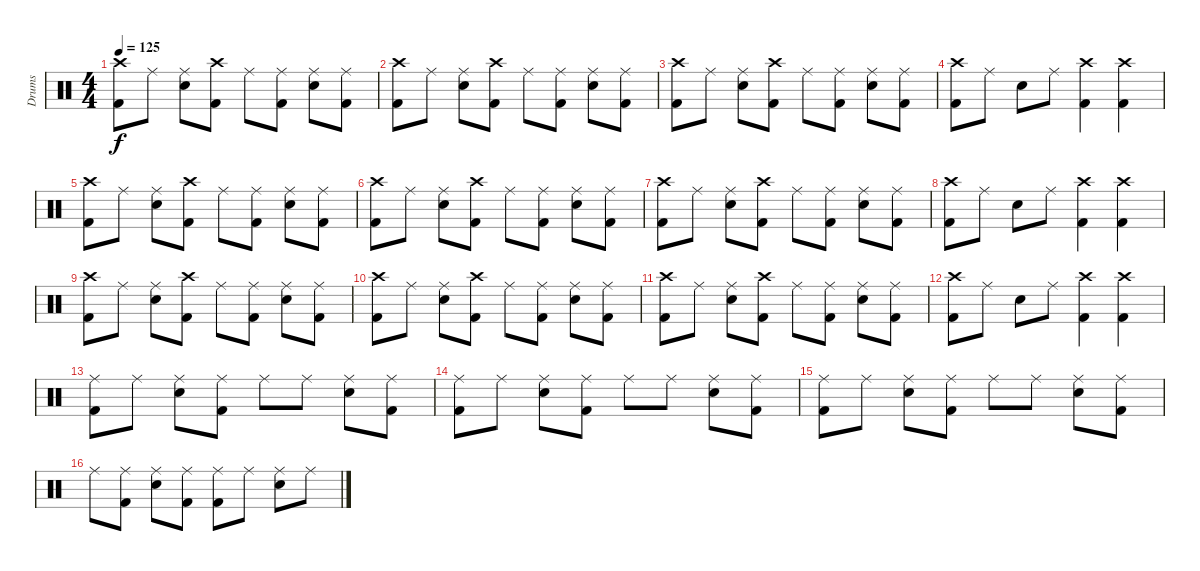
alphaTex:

\track ("Drums" "Drums") {instrument percussion}
\staff {score}
\articulation defaults
\ts (4 4)
\tempo 125
\clef neutral
\ks c
("Crash high (hit)" "Kick (hit) 2").8{dy f} "Ride (middle)".8 ("Ride (middle)" "Snare (hit) 2").8 ("Crash high (hit)" "Kick (hit) 2").8 "Ride (middle)".8 ("Ride (middle)" "Kick (hit) 2").8 ("Ride (middle)" "Snare (hit) 2").8 ("Ride (middle)" "Kick (hit) 2").8 |
("Crash high (hit)" "Kick (hit) 2").8 "Ride (middle)".8 ("Ride (middle)" "Snare (hit) 2").8 ("Crash high (hit)" "Kick (hit) 2").8 "Ride (middle)".8 ("Ride (middle)" "Kick (hit) 2").8 ("Ride (middle)" "Snare (hit) 2").8 ("Ride (middle)" "Kick (hit) 2").8 |
("Crash high (hit)" "Kick (hit) 2").8 "Ride (middle)".8 ("Ride (middle)" "Snare (hit) 2").8 ("Crash high (hit)" "Kick (hit) 2").8 "Ride (middle)".8 ("Ride (middle)" "Kick (hit) 2").8 ("Ride (middle)" "Snare (hit) 2").8 ("Ride (middle)" "Kick (hit) 2").8 |
("Crash high (hit)" "Kick (hit) 2").8 "Ride (middle)".8 "Snare (hit) 2".8 "Ride (middle)".8 ("Crash high (hit)" "Kick (hit) 2").4 ("Crash high (hit)" "Kick (hit) 2").4 |
("Crash high (hit)" "Kick (hit) 2").8 "Ride (middle)".8 ("Ride (middle)" "Snare (hit) 2").8 ("Crash high (hit)" "Kick (hit) 2").8 "Ride (middle)".8 ("Ride (middle)" "Kick (hit) 2").8 ("Ride (middle)" "Snare (hit) 2").8 ("Ride (middle)" "Kick (hit) 2").8 |
("Crash high (hit)" "Kick (hit) 2").8 "Ride (middle)".8 ("Ride (middle)" "Snare (hit) 2").8 ("Crash high (hit)" "Kick (hit) 2").8 "Ride (middle)".8 ("Ride (middle)" "Kick (hit) 2").8 ("Ride (middle)" "Snare (hit) 2").8 ("Ride (middle)" "Kick (hit) 2").8 |
("Crash high (hit)" "Kick (hit) 2").8 "Ride (middle)".8 ("Ride (middle)" "Snare (hit) 2").8 ("Crash high (hit)" "Kick (hit) 2").8 "Ride (middle)".8 ("Ride (middle)" "Kick (hit) 2").8 ("Ride (middle)" "Snare (hit) 2").8 ("Ride (middle)" "Kick (hit) 2").8 |
("Kick (hit) 2" "Crash high (hit)").8 "Ride (middle)".8 "Snare (hit) 2".8 "Ride (middle)".8 ("Kick (hit) 2" "Crash high (hit)").4 ("Kick (hit) 2" "Crash high (hit)").4 |
("Crash high (hit)" "Kick (hit) 2").8 "Ride (middle)".8 ("Ride (middle)" "Snare (hit) 2").8 ("Crash high (hit)" "Kick (hit) 2").8 "Ride (middle)".8 ("Ride (middle)" "Kick (hit) 2").8 ("Ride (middle)" "Snare (hit) 2").8 ("Ride (middle)" "Kick (hit) 2").8 |
("Crash high (hit)" "Kick (hit) 2").8 "Ride (middle)".8 ("Ride (middle)" "Snare (hit) 2").8 ("Crash high (hit)" "Kick (hit) 2").8 "Ride (middle)".8 ("Ride (middle)" "Kick (hit) 2").8 ("Ride (middle)" "Snare (hit) 2").8 ("Ride (middle)" "Kick (hit) 2").8 |
("Crash high (hit)" "Kick (hit) 2").8 "Ride (middle)".8 ("Ride (middle)" "Snare (hit) 2").8 ("Crash high (hit)" "Kick (hit) 2").8 "Ride (middle)".8 ("Ride (middle)" "Kick (hit) 2").8 ("Ride (middle)" "Snare (hit) 2").8 ("Ride (middle)" "Kick (hit) 2").8 |
("Crash high (hit)" "Kick (hit) 2").8 "Ride (middle)".8 "Snare (hit) 2".8 "Ride (middle)".8 ("Crash high (hit)" "Kick (hit) 2").4 ("Crash high (hit)" "Kick (hit) 2").4 |
("Ride (middle)" "Kick (hit) 2").8 "Ride (middle)".8 ("Ride (middle)" "Snare (hit) 2").8 ("Ride (middle)" "Kick (hit) 2").8 "Ride (middle)".8 "Ride (middle)".8 ("Ride (middle)" "Snare (hit) 2").8 ("Ride (middle)" "Kick (hit) 2").8 |
("Ride (middle)" "Kick (hit) 2").8 "Ride (middle)".8 ("Ride (middle)" "Snare (hit) 2").8 ("Ride (middle)" "Kick (hit) 2").8 "Ride (middle)".8 "Ride (middle)".8 ("Ride (middle)" "Snare (hit) 2").8 ("Ride (middle)" "Kick (hit) 2").8 |
("Ride (middle)" "Kick (hit) 2").8 "Ride (middle)".8 ("Ride (middle)" "Snare (hit) 2").8 ("Ride (middle)" "Kick (hit) 2").8 "Ride (middle)".8 "Ride (middle)".8 ("Ride (middle)" "Snare (hit) 2").8 ("Ride (middle)" "Kick (hit) 2").8 |
"Ride (middle)".8 ("Ride (middle)" "Kick (hit) 2").8 ("Ride (middle)" "Snare (hit) 2").8 ("Ride (middle)" "Kick (hit) 2").8 ("Ride (middle)" "Kick (hit) 2").8 "Ride (middle)".8 ("Ride (middle)" "Snare (hit) 2").8 "Ride (middle)".8
